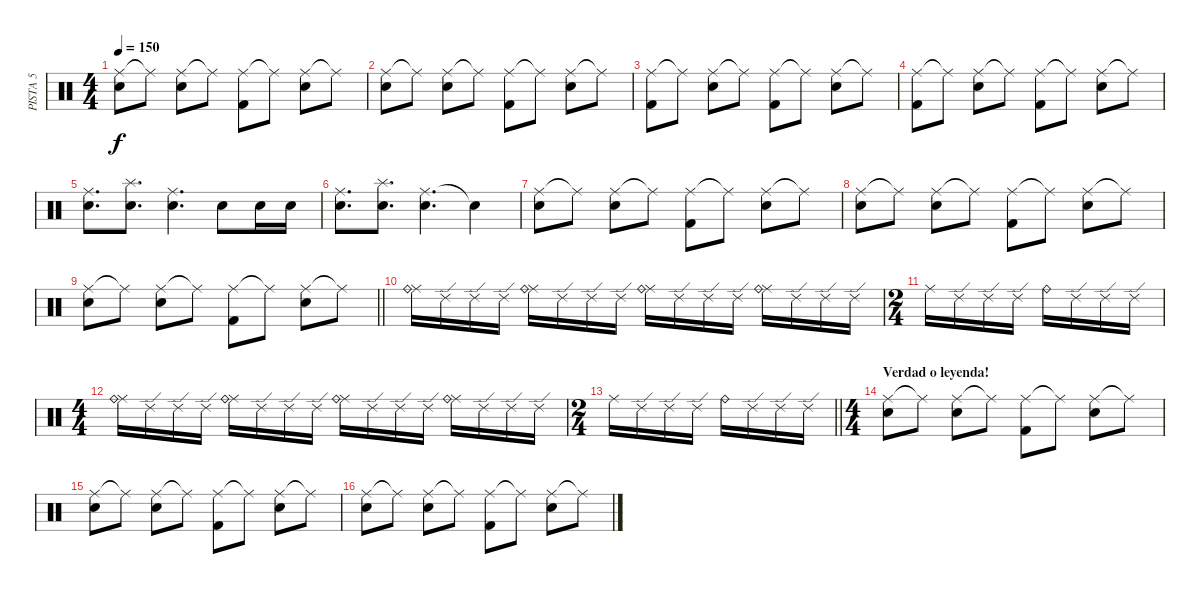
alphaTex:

\track ("PISTA 5" "PISTA 5") {instrument percussion}
\staff {score}
\articulation defaults
\ts (4 4)
\tempo 150
\clef neutral
\ks c
("Ride (middle)" "Snare (hit)").8{dy f} "Ride (middle)"{t}.8 ("Ride (middle)" "Electric Snare (hit)").8 "Ride (middle)"{t}.8 ("Ride (middle)" "Kick (hit) 2").8 "Ride (middle)"{t}.8 ("Ride (middle)" "Electric Snare (hit)").8 "Ride (middle)"{t}.8 |
("Ride (middle)" "Snare (hit)").8 "Ride (middle)"{t}.8 ("Ride (middle)" "Electric Snare (hit)").8 "Ride (middle)"{t}.8 ("Ride (middle)" "Kick (hit) 2").8 "Ride (middle)"{t}.8 ("Ride (middle)" "Electric Snare (hit)").8 "Ride (middle)"{t}.8 |
("Ride (middle)" "Kick (hit) 2").8 "Ride (middle)"{t}.8 ("Ride (middle)" "Electric Snare (hit)").8 "Ride (middle)"{t}.8 ("Ride (middle)" "Kick (hit) 2").8 "Ride (middle)"{t}.8 ("Ride (middle)" "Electric Snare (hit)").8 "Ride (middle)"{t}.8 |
("Ride (middle)" "Kick (hit) 2").8 "Ride (middle)"{t}.8 ("Ride (middle)" "Electric Snare (hit)").8 "Ride (middle)"{t}.8 ("Ride (middle)" "Kick (hit) 2").8 "Ride (middle)"{t}.8 ("Ride (middle)" "Electric Snare (hit)").8 "Ride (middle)"{t}.8 |
("Ride (middle)" "Electric Snare (hit)").8{d} ("Splash (hit)" "Electric Snare (hit)").8{d} ("Ride (middle)" "Electric Snare (hit)").4{d} "Electric Snare (hit)".8 "Electric Snare (hit)".16 "Electric Snare (hit)".16 |
("Ride (middle)" "Electric Snare (hit)").8{d} ("Splash (hit)" "Electric Snare (hit)").8{d} ("Ride (middle)" "Electric Snare (hit)").4{d} "Snare (hit)"{t}.4 |
("Ride (middle)" "Snare (hit)").8 "Ride (middle)"{t}.8 ("Ride (middle)" "Electric Snare (hit)").8 "Ride (middle)"{t}.8 ("Ride (middle)" "Kick (hit) 2").8 "Ride (middle)"{t}.8 ("Ride (middle)" "Electric Snare (hit)").8 "Ride (middle)"{t}.8 |
("Ride (middle)" "Snare (hit)").8 "Ride (middle)"{t}.8 ("Ride (middle)" "Electric Snare (hit)").8 "Ride (middle)"{t}.8 ("Ride (middle)" "Kick (hit) 2").8 "Ride (middle)"{t}.8 ("Ride (middle)" "Electric Snare (hit)").8 "Ride (middle)"{t}.8 |
\barLineRight lightlight
("Ride (middle)" "Snare (hit)").8 "Ride (middle)"{t}.8 ("Ride (middle)" "Electric Snare (hit)").8 "Ride (middle)"{t}.8 ("Ride (middle)" "Kick (hit) 2").8 "Ride (middle)"{t}.8 ("Ride (middle)" "Electric Snare (hit)").8 "Ride (middle)"{t}.8 |
\section ("" "")
("Ride (middle)" "Ride (bell)").16 "Ride (edge) 2".16 "Ride (edge) 2".16 "Ride (edge) 2".16 ("Ride (middle)" "Ride (bell)").16 "Ride (edge) 2".16 "Ride (edge) 2".16 "Ride (edge) 2".16 ("Ride (middle)" "Ride (bell)").16 "Ride (edge) 2".16 "Ride (edge) 2".16 "Ride (edge) 2".16 ("Ride (middle)" "Ride (bell)").16 "Ride (edge) 2".16 "Ride (edge) 2".16 "Ride (edge) 2".16 |
\ts (2 4)
"Ride (middle)".16 "Ride (edge) 2".16 "Ride (edge) 2".16 "Ride (edge) 2".16 "Ride (bell)".16 "Ride (edge) 2".16 "Ride (edge) 2".16 "Ride (edge) 2".16 |
\ts (4 4)
("Ride (middle)" "Ride (bell)").16 "Ride (edge) 2".16 "Ride (edge) 2".16 "Ride (edge) 2".16 ("Ride (middle)" "Ride (bell)").16 "Ride (edge) 2".16 "Ride (edge) 2".16 "Ride (edge) 2".16 ("Ride (middle)" "Ride (bell)").16 "Ride (edge) 2".16 "Ride (edge) 2".16 "Ride (edge) 2".16 ("Ride (middle)" "Ride (bell)").16 "Ride (edge) 2".16 "Ride (edge) 2".16 "Ride (edge) 2".16 |
\ts (2 4)
\barLineRight lightlight "Ride (middle)".16 "Ride (edge) 2".16 "Ride (edge) 2".16 "Ride (edge) 2".16 "Ride (bell)".16 "Ride (edge) 2".16 "Ride (edge) 2".16 "Ride (edge) 2".16
|
\ts (4 4)
\section ("" "Verdad o leyenda!")
("Ride (middle)" "Snare (hit)").8 "Ride (middle)"{t}.8 ("Ride (middle)" "Electric Snare (hit)").8 "Ride (middle)"{t}.8 ("Ride (middle)" "Kick (hit) 2").8 "Ride (middle)"{t}.8 ("Ride (middle)" "Electric Snare (hit)").8 "Ride (middle)"{t}.8 |
("Ride (middle)" "Snare (hit)").8 "Ride (middle)"{t}.8 ("Ride (middle)" "Electric Snare (hit)").8 "Ride (middle)"{t}.8 ("Ride (middle)" "Kick (hit) 2").8 "Ride (middle)"{t}.8 ("Ride (middle)" "Electric Snare (hit)").8 "Ride (middle)"{t}.8 |
("Ride (middle)" "Snare (hit)").8 "Ride (middle)"{t}.8 ("Ride (middle)" "Electric Snare (hit)").8 "Ride (middle)"{t}.8 ("Ride (middle)" "Kick (hit) 2").8 "Ride (middle)"{t}.8 ("Ride (middle)" "Electric Snare (hit)").8 "Ride (middle)"{t}.8
